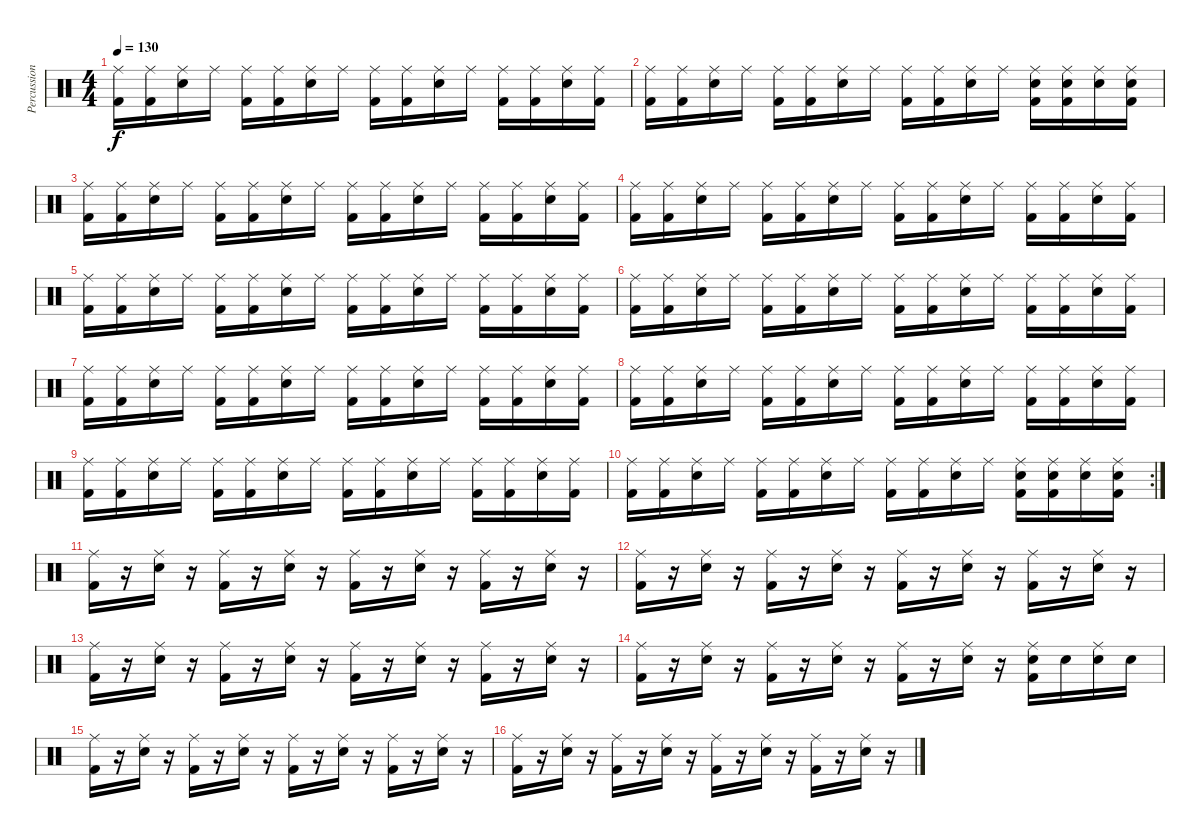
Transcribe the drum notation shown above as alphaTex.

\track ("Percussion" "Percussion") {instrument percussion}
\staff {score}
\articulation defaults
\ts (4 4)
\tempo 130
\clef neutral
\ks c
("Kick (hit) 2" "Ride (middle)").16{dy f} ("Kick (hit) 2" "Ride (middle)").16 ("Snare (hit) 2" "Ride (middle)").16 "Ride (middle)".16 ("Kick (hit) 2" "Ride (middle)").16 ("Kick (hit) 2" "Ride (middle)").16 ("Snare (hit) 2" "Ride (middle)").16 "Ride (middle)".16 ("Kick (hit) 2" "Ride (middle)").16 ("Kick (hit) 2" "Ride (middle)").16 ("Snare (hit) 2" "Ride (middle)").16 "Ride (middle)".16 ("Kick (hit) 2" "Ride (middle)").16 ("Kick (hit) 2" "Ride (middle)").16 ("Snare (hit) 2" "Ride (middle)").16 ("Kick (hit) 2" "Ride (middle)").16 |
("Kick (hit) 2" "Ride (middle)").16 ("Kick (hit) 2" "Ride (middle)").16 ("Snare (hit) 2" "Ride (middle)").16 "Ride (middle)".16 ("Kick (hit) 2" "Ride (middle)").16 ("Kick (hit) 2" "Ride (middle)").16 ("Snare (hit) 2" "Ride (middle)").16 "Ride (middle)".16 ("Kick (hit) 2" "Ride (middle)").16 ("Kick (hit) 2" "Ride (middle)").16 ("Snare (hit) 2" "Ride (middle)").16 "Ride (middle)".16 ("Kick (hit) 2" "Snare (hit) 2" "Ride (middle)").16 ("Kick (hit) 2" "Snare (hit) 2" "Ride (middle)").16 ("Snare (hit) 2" "Ride (middle)").16 ("Kick (hit) 2" "Snare (hit) 2" "Ride (middle)").16 |
("Kick (hit) 2" "Ride (middle)").16 ("Kick (hit) 2" "Ride (middle)").16 ("Snare (hit) 2" "Ride (middle)").16 "Ride (middle)".16 ("Kick (hit) 2" "Ride (middle)").16 ("Kick (hit) 2" "Ride (middle)").16 ("Snare (hit) 2" "Ride (middle)").16 "Ride (middle)".16 ("Kick (hit) 2" "Ride (middle)").16 ("Kick (hit) 2" "Ride (middle)").16 ("Snare (hit) 2" "Ride (middle)").16 "Ride (middle)".16 ("Kick (hit) 2" "Ride (middle)").16 ("Kick (hit) 2" "Ride (middle)").16 ("Snare (hit) 2" "Ride (middle)").16 ("Kick (hit) 2" "Ride (middle)").16 |
("Kick (hit) 2" "Ride (middle)").16 ("Kick (hit) 2" "Ride (middle)").16 ("Snare (hit) 2" "Ride (middle)").16 "Ride (middle)".16 ("Kick (hit) 2" "Ride (middle)").16 ("Kick (hit) 2" "Ride (middle)").16 ("Snare (hit) 2" "Ride (middle)").16 "Ride (middle)".16 ("Kick (hit) 2" "Ride (middle)").16 ("Kick (hit) 2" "Ride (middle)").16 ("Snare (hit) 2" "Ride (middle)").16 "Ride (middle)".16 ("Kick (hit) 2" "Ride (middle)").16 ("Kick (hit) 2" "Ride (middle)").16 ("Snare (hit) 2" "Ride (middle)").16 ("Kick (hit) 2" "Ride (middle)").16 |
("Kick (hit) 2" "Ride (middle)").16 ("Kick (hit) 2" "Ride (middle)").16 ("Snare (hit) 2" "Ride (middle)").16 "Ride (middle)".16 ("Kick (hit) 2" "Ride (middle)").16 ("Kick (hit) 2" "Ride (middle)").16 ("Snare (hit) 2" "Ride (middle)").16 "Ride (middle)".16 ("Kick (hit) 2" "Ride (middle)").16 ("Kick (hit) 2" "Ride (middle)").16 ("Snare (hit) 2" "Ride (middle)").16 "Ride (middle)".16 ("Kick (hit) 2" "Ride (middle)").16 ("Kick (hit) 2" "Ride (middle)").16 ("Snare (hit) 2" "Ride (middle)").16 ("Kick (hit) 2" "Ride (middle)").16 |
("Kick (hit) 2" "Ride (middle)").16 ("Kick (hit) 2" "Ride (middle)").16 ("Snare (hit) 2" "Ride (middle)").16 "Ride (middle)".16 ("Kick (hit) 2" "Ride (middle)").16 ("Kick (hit) 2" "Ride (middle)").16 ("Snare (hit) 2" "Ride (middle)").16 "Ride (middle)".16 ("Kick (hit) 2" "Ride (middle)").16 ("Kick (hit) 2" "Ride (middle)").16 ("Snare (hit) 2" "Ride (middle)").16 "Ride (middle)".16 ("Kick (hit) 2" "Ride (middle)").16 ("Kick (hit) 2" "Ride (middle)").16 ("Snare (hit) 2" "Ride (middle)").16 ("Kick (hit) 2" "Ride (middle)").16 |
("Kick (hit) 2" "Ride (middle)").16 ("Kick (hit) 2" "Ride (middle)").16 ("Snare (hit) 2" "Ride (middle)").16 "Ride (middle)".16 ("Kick (hit) 2" "Ride (middle)").16 ("Kick (hit) 2" "Ride (middle)").16 ("Snare (hit) 2" "Ride (middle)").16 "Ride (middle)".16 ("Kick (hit) 2" "Ride (middle)").16 ("Kick (hit) 2" "Ride (middle)").16 ("Snare (hit) 2" "Ride (middle)").16 "Ride (middle)".16 ("Kick (hit) 2" "Ride (middle)").16 ("Kick (hit) 2" "Ride (middle)").16 ("Snare (hit) 2" "Ride (middle)").16 ("Kick (hit) 2" "Ride (middle)").16 |
("Kick (hit) 2" "Ride (middle)").16 ("Kick (hit) 2" "Ride (middle)").16 ("Snare (hit) 2" "Ride (middle)").16 "Ride (middle)".16 ("Kick (hit) 2" "Ride (middle)").16 ("Kick (hit) 2" "Ride (middle)").16 ("Snare (hit) 2" "Ride (middle)").16 "Ride (middle)".16 ("Kick (hit) 2" "Ride (middle)").16 ("Kick (hit) 2" "Ride (middle)").16 ("Snare (hit) 2" "Ride (middle)").16 "Ride (middle)".16 ("Kick (hit) 2" "Ride (middle)").16 ("Kick (hit) 2" "Ride (middle)").16 ("Snare (hit) 2" "Ride (middle)").16 ("Kick (hit) 2" "Ride (middle)").16 |
("Kick (hit) 2" "Ride (middle)").16 ("Kick (hit) 2" "Ride (middle)").16 ("Snare (hit) 2" "Ride (middle)").16 "Ride (middle)".16 ("Kick (hit) 2" "Ride (middle)").16 ("Kick (hit) 2" "Ride (middle)").16 ("Snare (hit) 2" "Ride (middle)").16 "Ride (middle)".16 ("Kick (hit) 2" "Ride (middle)").16 ("Kick (hit) 2" "Ride (middle)").16 ("Snare (hit) 2" "Ride (middle)").16 "Ride (middle)".16 ("Kick (hit) 2" "Ride (middle)").16 ("Kick (hit) 2" "Ride (middle)").16 ("Snare (hit) 2" "Ride (middle)").16 ("Kick (hit) 2" "Ride (middle)").16 |
\rc 2
("Kick (hit) 2" "Ride (middle)").16 ("Kick (hit) 2" "Ride (middle)").16 ("Snare (hit) 2" "Ride (middle)").16 "Ride (middle)".16 ("Kick (hit) 2" "Ride (middle)").16 ("Kick (hit) 2" "Ride (middle)").16 ("Snare (hit) 2" "Ride (middle)").16 "Ride (middle)".16 ("Kick (hit) 2" "Ride (middle)").16 ("Kick (hit) 2" "Ride (middle)").16 ("Snare (hit) 2" "Ride (middle)").16 "Ride (middle)".16 ("Kick (hit) 2" "Snare (hit) 2" "Ride (middle)").16 ("Kick (hit) 2" "Snare (hit) 2" "Ride (middle)").16 ("Snare (hit) 2" "Ride (middle)").16 ("Kick (hit) 2" "Snare (hit) 2" "Ride (middle)").16 |
("Kick (hit) 2" "Ride (middle)").16 r.16 ("Snare (hit) 2" "Ride (middle)").16 r.16 ("Kick (hit) 2" "Ride (middle)").16 r.16 ("Snare (hit) 2" "Ride (middle)").16 r.16 ("Kick (hit) 2" "Ride (middle)").16 r.16 ("Snare (hit) 2" "Ride (middle)").16 r.16 ("Kick (hit) 2" "Ride (middle)").16 r.16 ("Snare (hit) 2" "Ride (middle)").16 r.16 |
("Kick (hit) 2" "Ride (middle)").16 r.16 ("Snare (hit) 2" "Ride (middle)").16 r.16 ("Kick (hit) 2" "Ride (middle)").16 r.16 ("Snare (hit) 2" "Ride (middle)").16 r.16 ("Kick (hit) 2" "Ride (middle)").16 r.16 ("Snare (hit) 2" "Ride (middle)").16 r.16 ("Kick (hit) 2" "Ride (middle)").16 r.16 ("Snare (hit) 2" "Ride (middle)").16 r.16 |
("Kick (hit) 2" "Ride (middle)").16 r.16 ("Snare (hit) 2" "Ride (middle)").16 r.16 ("Kick (hit) 2" "Ride (middle)").16 r.16 ("Snare (hit) 2" "Ride (middle)").16 r.16 ("Kick (hit) 2" "Ride (middle)").16 r.16 ("Snare (hit) 2" "Ride (middle)").16 r.16 ("Kick (hit) 2" "Ride (middle)").16 r.16 ("Snare (hit) 2" "Ride (middle)").16 r.16 |
("Kick (hit) 2" "Ride (middle)").16 r.16 ("Snare (hit) 2" "Ride (middle)").16 r.16 ("Kick (hit) 2" "Ride (middle)").16 r.16 ("Snare (hit) 2" "Ride (middle)").16 r.16 ("Kick (hit) 2" "Ride (middle)").16 r.16 ("Snare (hit) 2" "Ride (middle)").16 r.16 ("Kick (hit) 2" "Snare (hit) 2" "Ride (middle)").16 "Snare (hit) 2".16 ("Snare (hit) 2" "Ride (middle)").16 "Snare (hit) 2".16 |
("Kick (hit) 2" "Ride (middle)").16 r.16 ("Snare (hit) 2" "Ride (middle)").16 r.16 ("Kick (hit) 2" "Ride (middle)").16 r.16 ("Snare (hit) 2" "Ride (middle)").16 r.16 ("Kick (hit) 2" "Ride (middle)").16 r.16 ("Snare (hit) 2" "Ride (middle)").16 r.16 ("Kick (hit) 2" "Ride (middle)").16 r.16 ("Snare (hit) 2" "Ride (middle)").16 r.16 |
("Kick (hit) 2" "Ride (middle)").16 r.16 ("Snare (hit) 2" "Ride (middle)").16 r.16 ("Kick (hit) 2" "Ride (middle)").16 r.16 ("Snare (hit) 2" "Ride (middle)").16 r.16 ("Kick (hit) 2" "Ride (middle)").16 r.16 ("Snare (hit) 2" "Ride (middle)").16 r.16 ("Kick (hit) 2" "Ride (middle)").16 r.16 ("Snare (hit) 2" "Ride (middle)").16 r.16
